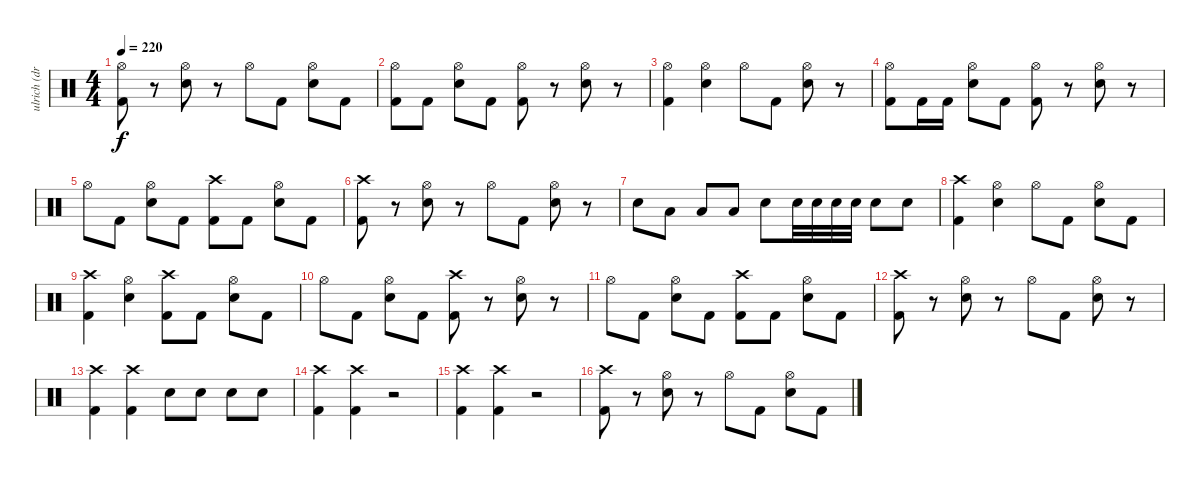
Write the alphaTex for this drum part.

\track ("ulrich (drums)" "ulrich (dr") {instrument percussion}
\staff {score}
\articulation defaults
\ts (4 4)
\tempo 220
\clef neutral
\ks c
("Hi-Hat (open)" "Kick (hit) 2").8{dy f} r.8 ("Hi-Hat (open)" "Snare (hit) 2").8 r.8 "Hi-Hat (open)".8 "Kick (hit) 2".8 ("Hi-Hat (open)" "Snare (hit) 2").8 "Kick (hit) 2".8 |
("Hi-Hat (open)" "Kick (hit) 2").8 "Kick (hit) 2".8 ("Hi-Hat (open)" "Snare (hit) 2").8 "Kick (hit) 2".8 ("Hi-Hat (open)" "Kick (hit) 2").8 r.8 ("Hi-Hat (open)" "Snare (hit) 2").8 r.8 |
("Hi-Hat (open)" "Kick (hit) 2").4 ("Hi-Hat (open)" "Snare (hit) 2").4 "Hi-Hat (open)".8 "Kick (hit) 2".8 ("Hi-Hat (open)" "Snare (hit) 2").8 r.8 |
("Hi-Hat (open)" "Kick (hit) 2").8 "Kick (hit) 2".16 "Kick (hit) 2".16 ("Hi-Hat (open)" "Snare (hit) 2").8 "Kick (hit) 2".8 ("Hi-Hat (open)" "Kick (hit) 2").8 r.8 ("Hi-Hat (open)" "Snare (hit) 2").8 r.8 |
"Hi-Hat (open)".8 "Kick (hit) 2".8 ("Hi-Hat (open)" "Snare (hit) 2").8 "Kick (hit) 2".8 ("Crash high (hit)" "Kick (hit) 2").8 "Kick (hit) 2".8 ("Hi-Hat (open)" "Snare (hit) 2").8 "Kick (hit) 2".8 |
("Crash high (hit)" "Kick (hit) 2").8 r.8 ("Hi-Hat (open)" "Snare (hit) 2").8 r.8 "Hi-Hat (open)".8 "Kick (hit) 2".8 ("Hi-Hat (open)" "Snare (hit) 2").8 r.8 |
"Snare (hit) 2".8 "Low Tom (hit)".8 "Low Tom (hit)".8 "Low Tom (hit)".8 "Snare (hit) 2".8 "Snare (hit) 2".32 "Snare (hit) 2".32 "Snare (hit) 2".32 "Snare (hit) 2".32 "Snare (hit) 2".8 "Snare (hit) 2".8 |
("Crash high (hit)" "Kick (hit) 2").4 ("Hi-Hat (open)" "Snare (hit) 2").4 "Hi-Hat (open)".8 "Kick (hit) 2".8 ("Hi-Hat (open)" "Snare (hit) 2").8 "Kick (hit) 2".8 |
("Crash high (hit)" "Kick (hit) 2").4 ("Hi-Hat (open)" "Snare (hit) 2").4 ("Crash high (hit)" "Kick (hit) 2").8 "Kick (hit) 2".8 ("Hi-Hat (open)" "Snare (hit) 2").8 "Kick (hit) 2".8 |
"Hi-Hat (open)".8 "Kick (hit) 2".8 ("Hi-Hat (open)" "Snare (hit) 2").8 "Kick (hit) 2".8 ("Crash high (hit)" "Kick (hit) 2").8 r.8 ("Hi-Hat (open)" "Snare (hit) 2").8 r.8 |
"Hi-Hat (open)".8 "Kick (hit) 2".8 ("Hi-Hat (open)" "Snare (hit) 2").8 "Kick (hit) 2".8 ("Crash high (hit)" "Kick (hit) 2").8 "Kick (hit) 2".8 ("Hi-Hat (open)" "Snare (hit) 2").8 "Kick (hit) 2".8 |
("Crash high (hit)" "Kick (hit) 2").8 r.8 ("Hi-Hat (open)" "Snare (hit) 2").8 r.8 "Hi-Hat (open)".8 "Kick (hit) 2".8 ("Hi-Hat (open)" "Snare (hit) 2").8 r.8 |
("Crash high (hit)" "Kick (hit) 2").4 ("Crash high (hit)" "Kick (hit) 2").4 "Snare (hit) 2".8 "Snare (hit) 2".8 "Snare (hit) 2".8 "Snare (hit) 2".8 |
("Crash high (hit)" "Kick (hit) 2").4 ("Crash high (hit)" "Kick (hit) 2").4 r.2 |
("Crash high (hit)" "Kick (hit) 2").4 ("Crash high (hit)" "Kick (hit) 2").4 r.2 |
("Crash high (hit)" "Kick (hit) 2").8 r.8 ("Hi-Hat (open)" "Snare (hit) 2").8 r.8 "Hi-Hat (open)".8 "Kick (hit) 2".8 ("Hi-Hat (open)" "Snare (hit) 2").8 "Kick (hit) 2".8
